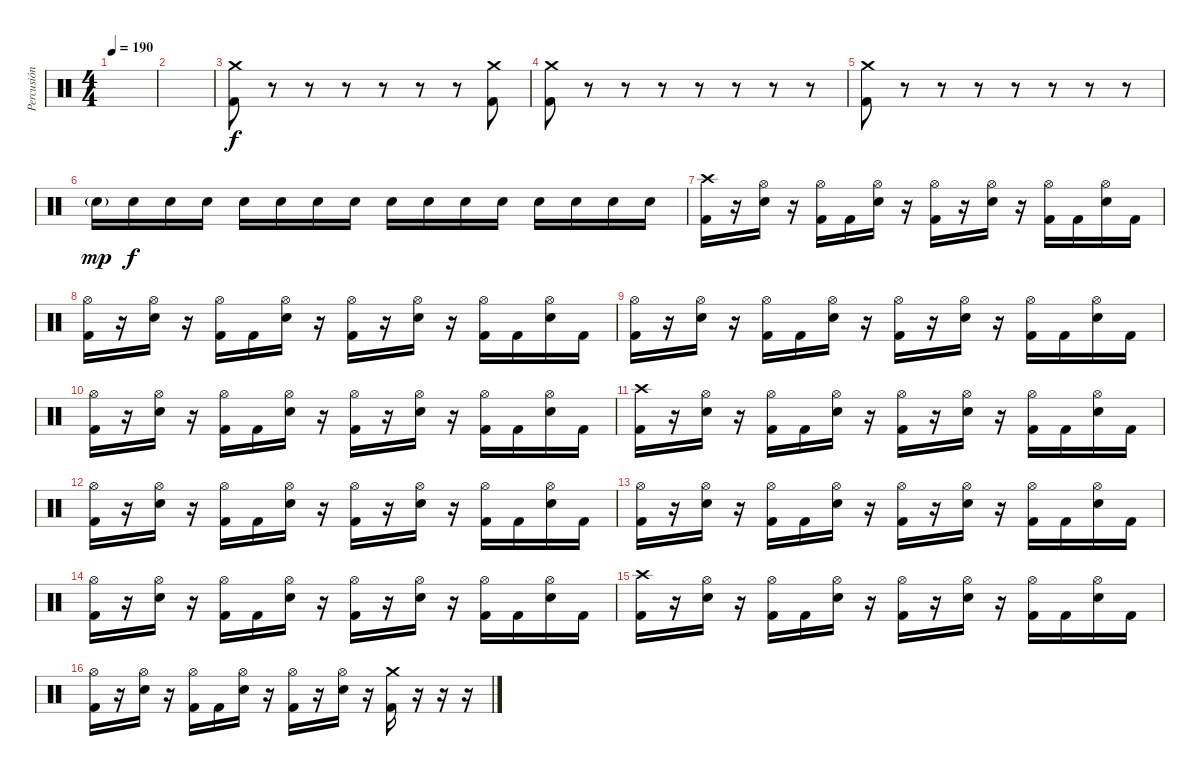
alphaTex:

\track ("Percusión" "Percusión") {instrument percussion}
\staff {score}
\articulation defaults
\ts (4 4)
\tempo 190
\clef neutral
\ks c
|
|
("Crash medium (hit)" "Kick (hit) 2").8 r.8 r.8 r.8 r.8 r.8 r.8 ("Crash medium (hit)" "Kick (hit) 2").8 |
("Crash medium (hit)" "Kick (hit) 2").8 r.8 r.8 r.8 r.8 r.8 r.8 r.8 |
("Crash medium (hit)" "Kick (hit) 2").8 r.8 r.8 r.8 r.8 r.8 r.8 r.8 |
"Electric Snare (hit)"{g}.16{dy mp} "Electric Snare (hit)".16{dy f} "Electric Snare (hit)".16 "Electric Snare (hit)".16 "Electric Snare (hit)".16 "Electric Snare (hit)".16 "Electric Snare (hit)".16 "Electric Snare (hit)".16 "Electric Snare (hit)".16 "Electric Snare (hit)".16 "Electric Snare (hit)".16 "Electric Snare (hit)".16 "Electric Snare (hit)".16 "Electric Snare (hit)".16 "Electric Snare (hit)".16 "Electric Snare (hit)".16 |
("Crash high (hit)" "Kick (hit) 2").16 r.16 ("Hi-Hat (open)" "Electric Snare (hit)").16 r.16 ("Hi-Hat (open)" "Kick (hit) 2").16 "Kick (hit) 2".16 ("Hi-Hat (open)" "Electric Snare (hit)").16 r.16 ("Hi-Hat (open)" "Kick (hit) 2").16 r.16 ("Hi-Hat (open)" "Electric Snare (hit)").16 r.16 ("Hi-Hat (open)" "Kick (hit) 2").16 "Kick (hit) 2".16 ("Hi-Hat (open)" "Electric Snare (hit)").16 "Kick (hit) 2".16 |
("Hi-Hat (open)" "Kick (hit) 2").16 r.16 ("Hi-Hat (open)" "Electric Snare (hit)").16 r.16 ("Hi-Hat (open)" "Kick (hit) 2").16 "Kick (hit) 2".16 ("Hi-Hat (open)" "Electric Snare (hit)").16 r.16 ("Hi-Hat (open)" "Kick (hit) 2").16 r.16 ("Hi-Hat (open)" "Electric Snare (hit)").16 r.16 ("Hi-Hat (open)" "Kick (hit) 2").16 "Kick (hit) 2".16 ("Hi-Hat (open)" "Electric Snare (hit)").16 "Kick (hit) 2".16 |
("Hi-Hat (open)" "Kick (hit) 2").16 r.16 ("Hi-Hat (open)" "Electric Snare (hit)").16 r.16 ("Hi-Hat (open)" "Kick (hit) 2").16 "Kick (hit) 2".16 ("Hi-Hat (open)" "Electric Snare (hit)").16 r.16 ("Hi-Hat (open)" "Kick (hit) 2").16 r.16 ("Hi-Hat (open)" "Electric Snare (hit)").16 r.16 ("Hi-Hat (open)" "Kick (hit) 2").16 "Kick (hit) 2".16 ("Hi-Hat (open)" "Electric Snare (hit)").16 "Kick (hit) 2".16 |
("Hi-Hat (open)" "Kick (hit) 2").16 r.16 ("Hi-Hat (open)" "Electric Snare (hit)").16 r.16 ("Hi-Hat (open)" "Kick (hit) 2").16 "Kick (hit) 2".16 ("Hi-Hat (open)" "Electric Snare (hit)").16 r.16 ("Hi-Hat (open)" "Kick (hit) 2").16 r.16 ("Hi-Hat (open)" "Electric Snare (hit)").16 r.16 ("Hi-Hat (open)" "Kick (hit) 2").16 "Kick (hit) 2".16 ("Hi-Hat (open)" "Electric Snare (hit)").16 "Kick (hit) 2".16 |
("Crash high (hit)" "Kick (hit) 2").16 r.16 ("Hi-Hat (open)" "Electric Snare (hit)").16 r.16 ("Hi-Hat (open)" "Kick (hit) 2").16 "Kick (hit) 2".16 ("Hi-Hat (open)" "Electric Snare (hit)").16 r.16 ("Hi-Hat (open)" "Kick (hit) 2").16 r.16 ("Hi-Hat (open)" "Electric Snare (hit)").16 r.16 ("Hi-Hat (open)" "Kick (hit) 2").16 "Kick (hit) 2".16 ("Hi-Hat (open)" "Electric Snare (hit)").16 "Kick (hit) 2".16 |
("Hi-Hat (open)" "Kick (hit) 2").16 r.16 ("Hi-Hat (open)" "Electric Snare (hit)").16 r.16 ("Hi-Hat (open)" "Kick (hit) 2").16 "Kick (hit) 2".16 ("Hi-Hat (open)" "Electric Snare (hit)").16 r.16 ("Hi-Hat (open)" "Kick (hit) 2").16 r.16 ("Hi-Hat (open)" "Electric Snare (hit)").16 r.16 ("Hi-Hat (open)" "Kick (hit) 2").16 "Kick (hit) 2".16 ("Hi-Hat (open)" "Electric Snare (hit)").16 "Kick (hit) 2".16 |
("Hi-Hat (open)" "Kick (hit) 2").16 r.16 ("Hi-Hat (open)" "Electric Snare (hit)").16 r.16 ("Hi-Hat (open)" "Kick (hit) 2").16 "Kick (hit) 2".16 ("Hi-Hat (open)" "Electric Snare (hit)").16 r.16 ("Hi-Hat (open)" "Kick (hit) 2").16 r.16 ("Hi-Hat (open)" "Electric Snare (hit)").16 r.16 ("Hi-Hat (open)" "Kick (hit) 2").16 "Kick (hit) 2".16 ("Hi-Hat (open)" "Electric Snare (hit)").16 "Kick (hit) 2".16 |
("Hi-Hat (open)" "Kick (hit) 2").16 r.16 ("Hi-Hat (open)" "Electric Snare (hit)").16 r.16 ("Hi-Hat (open)" "Kick (hit) 2").16 "Kick (hit) 2".16 ("Hi-Hat (open)" "Electric Snare (hit)").16 r.16 ("Hi-Hat (open)" "Kick (hit) 2").16 r.16 ("Hi-Hat (open)" "Electric Snare (hit)").16 r.16 ("Hi-Hat (open)" "Kick (hit) 2").16 "Kick (hit) 2".16 ("Hi-Hat (open)" "Electric Snare (hit)").16 "Kick (hit) 2".16 |
("Crash high (hit)" "Kick (hit) 2").16 r.16 ("Hi-Hat (open)" "Electric Snare (hit)").16 r.16 ("Hi-Hat (open)" "Kick (hit) 2").16 "Kick (hit) 2".16 ("Hi-Hat (open)" "Electric Snare (hit)").16 r.16 ("Hi-Hat (open)" "Kick (hit) 2").16 r.16 ("Hi-Hat (open)" "Electric Snare (hit)").16 r.16 ("Hi-Hat (open)" "Kick (hit) 2").16 "Kick (hit) 2".16 ("Hi-Hat (open)" "Electric Snare (hit)").16 "Kick (hit) 2".16 |
("Hi-Hat (open)" "Kick (hit) 2").16 r.16 ("Hi-Hat (open)" "Electric Snare (hit)").16 r.16 ("Hi-Hat (open)" "Kick (hit) 2").16 "Kick (hit) 2".16 ("Hi-Hat (open)" "Electric Snare (hit)").16 r.16 ("Hi-Hat (open)" "Kick (hit) 2").16 r.16 ("Hi-Hat (open)" "Electric Snare (hit)").16 r.16 ("Crash medium (hit)" "Kick (hit) 2").16 r.16 r.16 r.16
